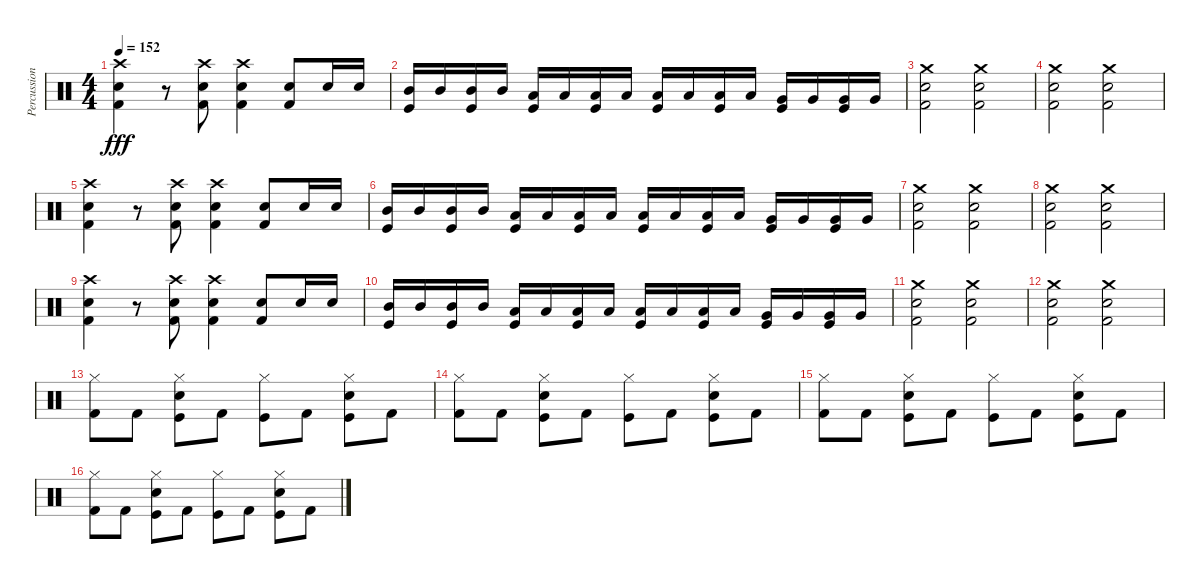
\track ("Percussions" "Percussion") {instrument percussion}
\staff {score}
\articulation defaults
\ts (4 4)
\tempo 152
\clef neutral
\ks c
("Crash high (hit)" "Snare (hit) 2" "Kick (hit) 2").4{dy fff} r.8 ("Crash high (hit)" "Snare (hit) 2" "Kick (hit) 2").8 ("Crash high (hit)" "Snare (hit) 2" "Kick (hit) 2").4 ("Snare (hit) 2" "Kick (hit) 2").8 "Snare (hit) 2".16 "Snare (hit) 2".16 |
("Mid Tom (hit)" "Kick (hit)").16 "Mid Tom (hit)".16 ("Mid Tom (hit)" "Kick (hit)").16 "Mid Tom (hit)".16 ("Low Tom (hit)" "Kick (hit)").16 "Low Tom (hit)".16 ("Low Tom (hit)" "Kick (hit)").16 "Low Tom (hit)".16 ("Low Floor Tom (hit)" "Kick (hit)").16 "Low Floor Tom (hit)".16 ("Low Floor Tom (hit)" "Kick (hit)").16 "Low Floor Tom (hit)".16 ("Very Low Tom (hit)" "Kick (hit)").16 "Very Low Tom (hit)".16 ("Very Low Tom (hit)" "Kick (hit)").16 "Very Low Tom (hit)".16 |
("Crash medium (hit)" "Snare (hit) 2" "Kick (hit) 2").2 ("Crash medium (hit)" "Snare (hit) 2" "Kick (hit) 2").2 |
("Crash medium (hit)" "Snare (hit) 2" "Kick (hit) 2").2 ("Crash medium (hit)" "Snare (hit) 2" "Kick (hit) 2").2 |
("Crash high (hit)" "Snare (hit) 2" "Kick (hit) 2").4 r.8 ("Crash high (hit)" "Snare (hit) 2" "Kick (hit) 2").8 ("Crash high (hit)" "Snare (hit) 2" "Kick (hit) 2").4 ("Snare (hit) 2" "Kick (hit) 2").8 "Snare (hit) 2".16 "Snare (hit) 2".16 |
("Mid Tom (hit)" "Kick (hit)").16 "Mid Tom (hit)".16 ("Mid Tom (hit)" "Kick (hit)").16 "Mid Tom (hit)".16 ("Low Tom (hit)" "Kick (hit)").16 "Low Tom (hit)".16 ("Low Tom (hit)" "Kick (hit)").16 "Low Tom (hit)".16 ("Low Floor Tom (hit)" "Kick (hit)").16 "Low Floor Tom (hit)".16 ("Low Floor Tom (hit)" "Kick (hit)").16 "Low Floor Tom (hit)".16 ("Very Low Tom (hit)" "Kick (hit)").16 "Very Low Tom (hit)".16 ("Very Low Tom (hit)" "Kick (hit)").16 "Very Low Tom (hit)".16 |
("Crash medium (hit)" "Snare (hit) 2" "Kick (hit) 2").2 ("Crash medium (hit)" "Snare (hit) 2" "Kick (hit) 2").2 |
("Crash medium (hit)" "Snare (hit) 2" "Kick (hit) 2").2 ("Crash medium (hit)" "Snare (hit) 2" "Kick (hit) 2").2 |
("Crash high (hit)" "Snare (hit) 2" "Kick (hit) 2").4 r.8 ("Crash high (hit)" "Snare (hit) 2" "Kick (hit) 2").8 ("Crash high (hit)" "Snare (hit) 2" "Kick (hit) 2").4 ("Snare (hit) 2" "Kick (hit) 2").8 "Snare (hit) 2".16 "Snare (hit) 2".16 |
("Mid Tom (hit)" "Kick (hit)").16 "Mid Tom (hit)".16 ("Mid Tom (hit)" "Kick (hit)").16 "Mid Tom (hit)".16 ("Low Tom (hit)" "Kick (hit)").16 "Low Tom (hit)".16 ("Low Tom (hit)" "Kick (hit)").16 "Low Tom (hit)".16 ("Low Floor Tom (hit)" "Kick (hit)").16 "Low Floor Tom (hit)".16 ("Low Floor Tom (hit)" "Kick (hit)").16 "Low Floor Tom (hit)".16 ("Very Low Tom (hit)" "Kick (hit)").16 "Very Low Tom (hit)".16 ("Very Low Tom (hit)" "Kick (hit)").16 "Very Low Tom (hit)".16 |
("Crash medium (hit)" "Snare (hit) 2" "Kick (hit) 2").2 ("Crash medium (hit)" "Snare (hit) 2" "Kick (hit) 2").2 |
("Crash medium (hit)" "Snare (hit) 2" "Kick (hit) 2").2 ("Crash medium (hit)" "Snare (hit) 2" "Kick (hit) 2").2 |
("Hi-Hat (closed)" "Kick (hit) 2").8 "Kick (hit) 2".8 ("Hi-Hat (closed)" "Snare (hit) 2" "Kick (hit)").8 "Kick (hit) 2".8 ("Hi-Hat (closed)" "Kick (hit)").8 "Kick (hit) 2".8 ("Hi-Hat (closed)" "Snare (hit) 2" "Kick (hit)").8 "Kick (hit) 2".8 |
("Hi-Hat (closed)" "Kick (hit) 2").8 "Kick (hit) 2".8 ("Hi-Hat (closed)" "Snare (hit) 2" "Kick (hit)").8 "Kick (hit) 2".8 ("Hi-Hat (closed)" "Kick (hit)").8 "Kick (hit) 2".8 ("Hi-Hat (closed)" "Snare (hit) 2" "Kick (hit)").8 "Kick (hit) 2".8 |
("Hi-Hat (closed)" "Kick (hit) 2").8 "Kick (hit) 2".8 ("Hi-Hat (closed)" "Snare (hit) 2" "Kick (hit)").8 "Kick (hit) 2".8 ("Hi-Hat (closed)" "Kick (hit)").8 "Kick (hit) 2".8 ("Hi-Hat (closed)" "Snare (hit) 2" "Kick (hit)").8 "Kick (hit) 2".8 |
("Hi-Hat (closed)" "Kick (hit) 2").8 "Kick (hit) 2".8 ("Hi-Hat (closed)" "Snare (hit) 2" "Kick (hit)").8 "Kick (hit) 2".8 ("Hi-Hat (closed)" "Kick (hit)").8 "Kick (hit) 2".8 ("Hi-Hat (closed)" "Snare (hit) 2" "Kick (hit)").8 "Kick (hit) 2".8
